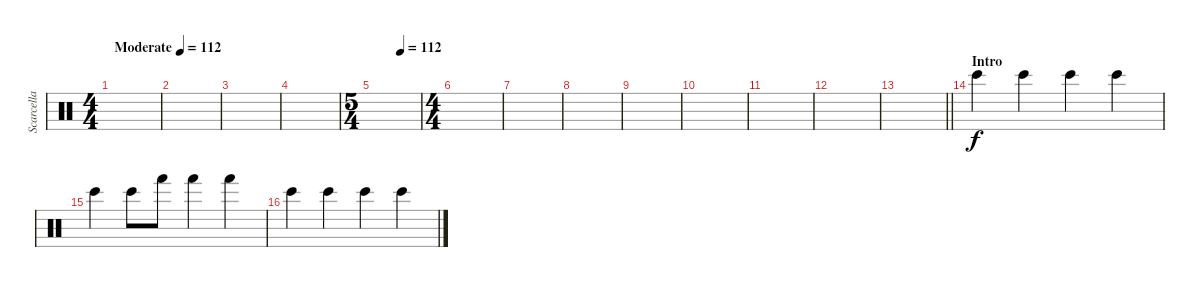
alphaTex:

\track ("Scarcella" "Scarcella") {instrument percussion}
\staff {score}
\articulation defaults
\ts (4 4)
\tempo (112 "Moderate")
\tempo 120
\tempo (112 "Moderate")
\clef neutral
\ks c
|
|
|
|
\ts (5 4)
\tempo (112 0.575)
|
\ts (4 4)
|
|
|
|
|
|
|
\barLineRight lightlight
|
\section ("" "Intro")
"Bongo High (hit)".4{volume 11} "Bongo High (hit)".4 "Bongo High (hit)".4 "Bongo High (hit)".4 |
"Bongo High (hit)".4 "Bongo High (hit)".8 "Hand (hit)".8 "Hand (hit)".4 "Hand (hit)".4 |
"Bongo High (hit)".4 "Bongo High (hit)".4 "Bongo High (hit)".4 "Bongo High (hit)".4
